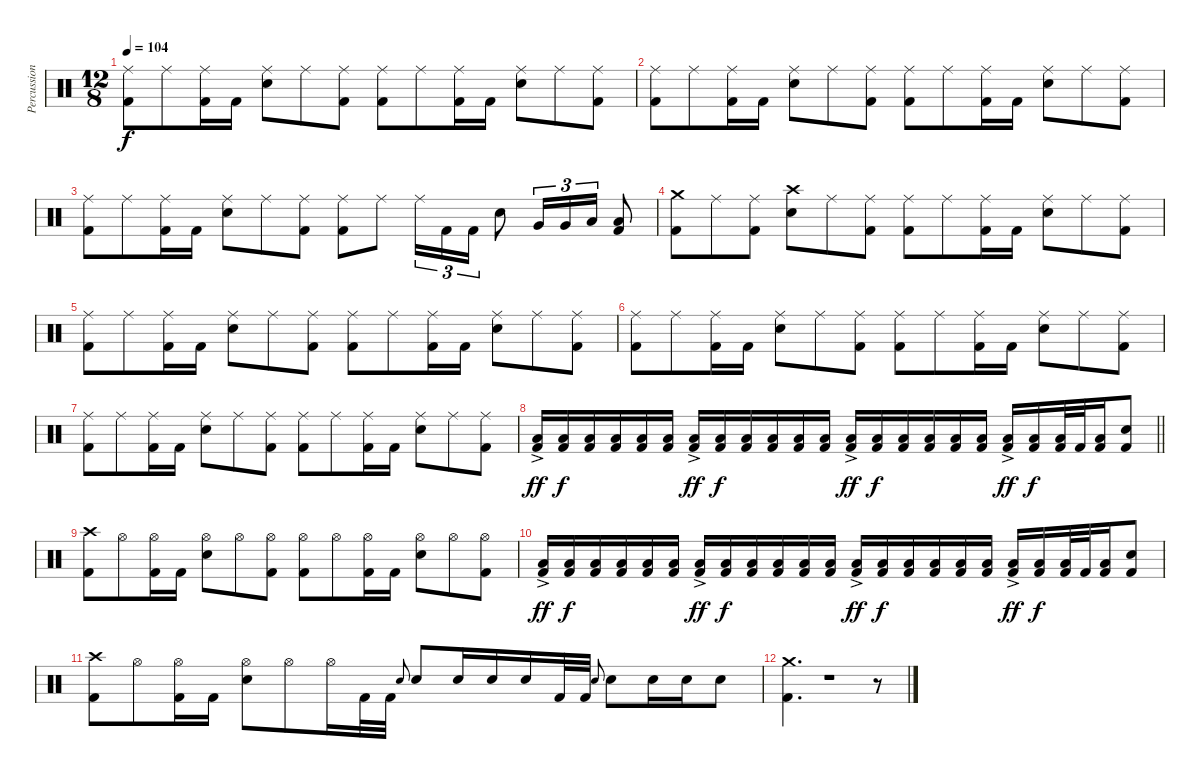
\track ("Percussion" "Percussion") {instrument percussion}
\staff {score}
\articulation defaults
\ts (12 8)
\tempo 104
\clef neutral
\ks c
("Ride (middle)" "Kick (hit) 2").8{dy f} "Ride (middle)".8 ("Ride (middle)" "Kick (hit) 2").16 "Kick (hit) 2".16 ("Ride (middle)" "Electric Snare (hit)").8 "Ride (middle)".8 ("Ride (middle)" "Kick (hit) 2").8 ("Ride (middle)" "Kick (hit) 2").8 "Ride (middle)".8 ("Ride (middle)" "Kick (hit) 2").16 "Kick (hit) 2".16 ("Ride (middle)" "Electric Snare (hit)").8 "Ride (middle)".8 ("Ride (middle)" "Kick (hit) 2").8 |
("Ride (middle)" "Kick (hit) 2").8 "Ride (middle)".8 ("Ride (middle)" "Kick (hit) 2").16 "Kick (hit) 2".16 ("Ride (middle)" "Electric Snare (hit)").8 "Ride (middle)".8 ("Ride (middle)" "Kick (hit) 2").8 ("Ride (middle)" "Kick (hit) 2").8 "Ride (middle)".8 ("Ride (middle)" "Kick (hit) 2").16 "Kick (hit) 2".16 ("Ride (middle)" "Electric Snare (hit)").8 "Ride (middle)".8 ("Ride (middle)" "Kick (hit) 2").8 |
("Ride (middle)" "Kick (hit) 2").8 "Ride (middle)".8 ("Ride (middle)" "Kick (hit) 2").16 "Kick (hit) 2".16 ("Ride (middle)" "Electric Snare (hit)").8 "Ride (middle)".8 ("Ride (middle)" "Kick (hit) 2").8 ("Ride (middle)" "Kick (hit) 2").8 "Ride (middle)".8 "Ride (middle)".16{tu (3 2)} "Kick (hit) 2".16{tu (3 2)} "Kick (hit) 2".16{tu (3 2)} "Electric Snare (hit)".8 "Very Low Tom (hit)".16{tu (3 2)} "Very Low Tom (hit)".16{tu (3 2)} "Low Floor Tom (hit)".16{tu (3 2)} ("Low Floor Tom (hit)" "Kick (hit) 2").8 |
("Crash medium (hit)" "Kick (hit) 2").8 "Ride (middle)".8 ("Ride (middle)" "Kick (hit) 2").8 ("Crash high (hit)" "Electric Snare (hit)").8 "Ride (middle)".8 ("Ride (middle)" "Kick (hit) 2").8 ("Ride (middle)" "Kick (hit) 2").8 "Ride (middle)".8 ("Ride (middle)" "Kick (hit) 2").16 "Kick (hit) 2".16 ("Ride (middle)" "Electric Snare (hit)").8 "Ride (middle)".8 ("Ride (middle)" "Kick (hit) 2").8 |
("Ride (middle)" "Kick (hit) 2").8 "Ride (middle)".8 ("Ride (middle)" "Kick (hit) 2").16 "Kick (hit) 2".16 ("Ride (middle)" "Electric Snare (hit)").8 "Ride (middle)".8 ("Ride (middle)" "Kick (hit) 2").8 ("Ride (middle)" "Kick (hit) 2").8 "Ride (middle)".8 ("Ride (middle)" "Kick (hit) 2").16 "Kick (hit) 2".16 ("Ride (middle)" "Electric Snare (hit)").8 "Ride (middle)".8 ("Ride (middle)" "Kick (hit) 2").8 |
("Ride (middle)" "Kick (hit) 2").8 "Ride (middle)".8 ("Ride (middle)" "Kick (hit) 2").16 "Kick (hit) 2".16 ("Ride (middle)" "Electric Snare (hit)").8 "Ride (middle)".8 ("Ride (middle)" "Kick (hit) 2").8 ("Ride (middle)" "Kick (hit) 2").8 "Ride (middle)".8 ("Ride (middle)" "Kick (hit) 2").16 "Kick (hit) 2".16 ("Ride (middle)" "Electric Snare (hit)").8 "Ride (middle)".8 ("Ride (middle)" "Kick (hit) 2").8 |
("Ride (middle)" "Kick (hit) 2").8 "Ride (middle)".8 ("Ride (middle)" "Kick (hit) 2").16 "Kick (hit) 2".16 ("Ride (middle)" "Electric Snare (hit)").8 "Ride (middle)".8 ("Ride (middle)" "Kick (hit) 2").8 ("Ride (middle)" "Kick (hit) 2").8 "Ride (middle)".8 ("Ride (middle)" "Kick (hit) 2").16 "Kick (hit) 2".16 ("Ride (middle)" "Electric Snare (hit)").8 "Ride (middle)".8 ("Ride (middle)" "Kick (hit) 2").8 |
\barLineRight lightlight
("Low Floor Tom (hit)"{ac} "Kick (hit) 2").16{dy ff} ("Low Floor Tom (hit)" "Kick (hit) 2").16{dy f} ("Low Floor Tom (hit)" "Kick (hit) 2").16 ("Low Floor Tom (hit)" "Kick (hit) 2").16 ("Low Floor Tom (hit)" "Kick (hit) 2").16 ("Low Floor Tom (hit)" "Kick (hit) 2").16 ("Low Floor Tom (hit)"{ac} "Kick (hit) 2").16{dy ff} ("Low Floor Tom (hit)" "Kick (hit) 2").16{dy f} ("Low Floor Tom (hit)" "Kick (hit) 2").16 ("Low Floor Tom (hit)" "Kick (hit) 2").16 ("Low Floor Tom (hit)" "Kick (hit) 2").16 ("Low Floor Tom (hit)" "Kick (hit) 2").16 ("Low Floor Tom (hit)"{ac} "Kick (hit) 2").16{dy ff} ("Low Floor Tom (hit)" "Kick (hit) 2").16{dy f} ("Low Floor Tom (hit)" "Kick (hit) 2").16 ("Low Floor Tom (hit)" "Kick (hit) 2").16 ("Low Floor Tom (hit)" "Kick (hit) 2").16 ("Low Floor Tom (hit)" "Kick (hit) 2").16 ("Low Floor Tom (hit)"{ac} "Kick (hit) 2").16{dy ff} ("Low Floor Tom (hit)" "Kick (hit) 2").16{dy f} ("Low Floor Tom (hit)" "Kick (hit) 2").32 "Kick (hit) 2".32 ("Low Floor Tom (hit)" "Kick (hit) 2").16 ("Electric Snare (hit)" "Kick (hit) 2").8 |
("Crash high (hit)" "Kick (hit) 2").8 "Hi-Hat (open)".8 ("Hi-Hat (open)" "Kick (hit) 2").16 "Kick (hit) 2".16 ("Hi-Hat (open)" "Electric Snare (hit)").8 "Hi-Hat (open)".8 ("Hi-Hat (open)" "Kick (hit) 2").8 ("Hi-Hat (open)" "Kick (hit) 2").8 "Hi-Hat (open)".8 ("Hi-Hat (open)" "Kick (hit) 2").16 "Kick (hit) 2".16 ("Hi-Hat (open)" "Electric Snare (hit)").8 "Hi-Hat (open)".8 ("Hi-Hat (open)" "Kick (hit) 2").8 |
("Low Floor Tom (hit)"{ac} "Kick (hit) 2").16{dy ff} ("Low Floor Tom (hit)" "Kick (hit) 2").16{dy f} ("Low Floor Tom (hit)" "Kick (hit) 2").16 ("Low Floor Tom (hit)" "Kick (hit) 2").16 ("Low Floor Tom (hit)" "Kick (hit) 2").16 ("Low Floor Tom (hit)" "Kick (hit) 2").16 ("Low Floor Tom (hit)"{ac} "Kick (hit) 2").16{dy ff} ("Low Floor Tom (hit)" "Kick (hit) 2").16{dy f} ("Low Floor Tom (hit)" "Kick (hit) 2").16 ("Low Floor Tom (hit)" "Kick (hit) 2").16 ("Low Floor Tom (hit)" "Kick (hit) 2").16 ("Low Floor Tom (hit)" "Kick (hit) 2").16 ("Low Floor Tom (hit)"{ac} "Kick (hit) 2").16{dy ff} ("Low Floor Tom (hit)" "Kick (hit) 2").16{dy f} ("Low Floor Tom (hit)" "Kick (hit) 2").16 ("Low Floor Tom (hit)" "Kick (hit) 2").16 ("Low Floor Tom (hit)" "Kick (hit) 2").16 ("Low Floor Tom (hit)" "Kick (hit) 2").16 ("Low Floor Tom (hit)"{ac} "Kick (hit) 2").16{dy ff} ("Low Floor Tom (hit)" "Kick (hit) 2").16{dy f} ("Low Floor Tom (hit)" "Kick (hit) 2").32 "Kick (hit) 2".32 ("Low Floor Tom (hit)" "Kick (hit) 2").16 ("Electric Snare (hit)" "Kick (hit) 2").8 |
("Crash high (hit)" "Kick (hit) 2").8 "Hi-Hat (open)".8 ("Hi-Hat (open)" "Kick (hit) 2").16 "Kick (hit) 2".16 ("Hi-Hat (open)" "Electric Snare (hit)").8 "Hi-Hat (open)".8 "Hi-Hat (open)".16 "Kick (hit) 2".32 "Kick (hit) 2".32 "Electric Snare (hit)".8{gr onbeat} "Electric Snare (hit)".8 "Electric Snare (hit)".16 "Electric Snare (hit)".16 "Electric Snare (hit)".16 "Kick (hit) 2".32 "Kick (hit) 2".32 "Electric Snare (hit)".8{gr onbeat} "Electric Snare (hit)".8 "Electric Snare (hit)".16 "Electric Snare (hit)".16 "Electric Snare (hit)".8 |
("Crash medium (hit)" "Kick (hit) 2").4{d} r.1 r.8
